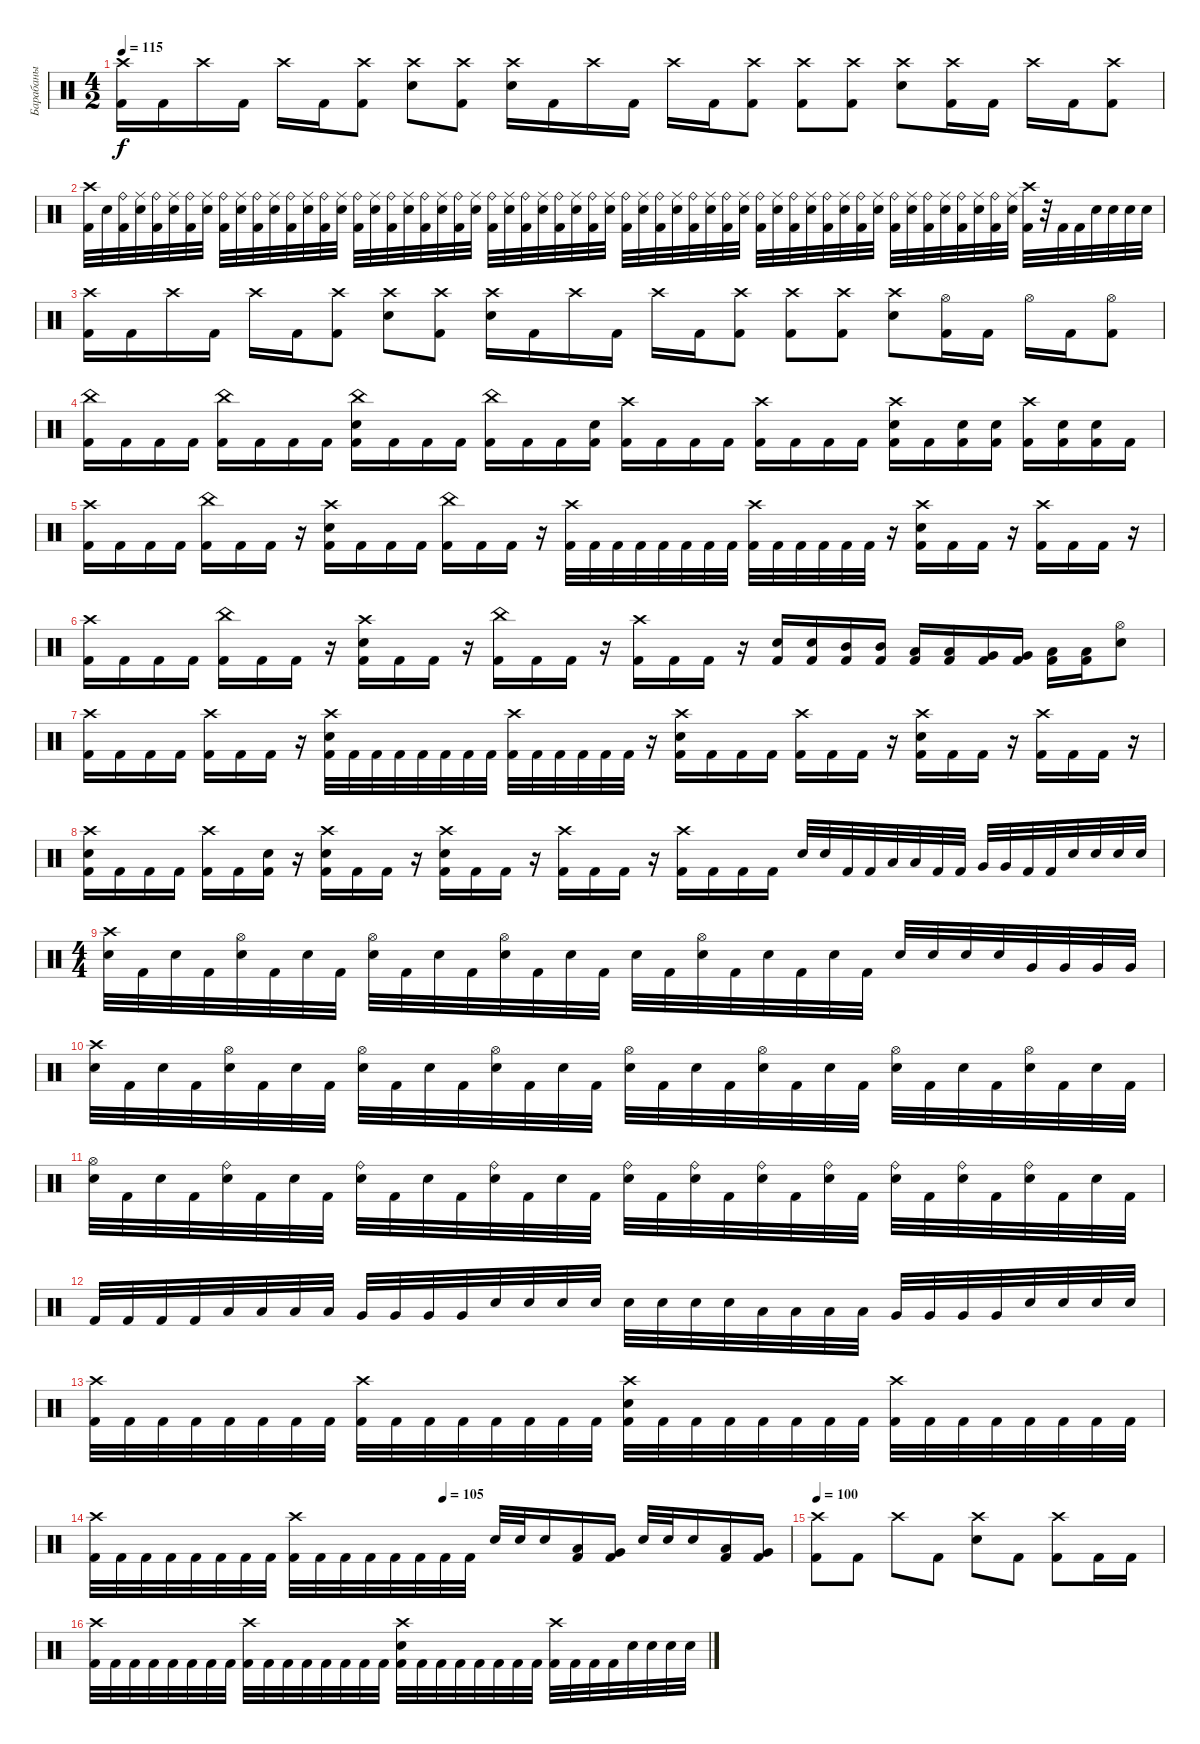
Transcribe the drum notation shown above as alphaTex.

\track ("Барабаны" "Барабаны") {instrument percussion}
\staff {score}
\articulation defaults
\ts (4 2)
\tempo 115
\clef neutral
\ks c
("Crash high (hit)" "Kick (hit) 2").16{dy f} "Kick (hit) 2".16 "Crash high (hit)".16 "Kick (hit) 2".16 "Crash high (hit)".16 "Kick (hit) 2".16 ("Crash high (hit)" "Kick (hit) 2").8 ("Crash high (hit)" "Electric Snare (hit)").8 ("Crash high (hit)" "Kick (hit) 2").8 ("Crash high (hit)" "Electric Snare (hit)").16 "Kick (hit) 2".16 "Crash high (hit)".16 "Kick (hit) 2".16 "Crash high (hit)".16 "Kick (hit) 2".16 ("Crash high (hit)" "Kick (hit) 2").8 ("Crash high (hit)" "Kick (hit) 2").8 ("Crash high (hit)" "Kick (hit) 2").8 ("Crash high (hit)" "Electric Snare (hit)").8 ("Crash high (hit)" "Kick (hit) 2").16 "Kick (hit) 2".16 "Crash high (hit)".16 "Kick (hit) 2".16 ("Crash high (hit)" "Kick (hit) 2").8 |
("Crash high (hit)" "Kick (hit) 2").32 "Electric Snare (hit)".32 ("Ride (bell)" "Kick (hit) 2").32 ("Ride (middle)" "Electric Snare (hit)").32 ("Ride (bell)" "Kick (hit) 2").32 ("Ride (middle)" "Electric Snare (hit)").32 ("Ride (bell)" "Kick (hit) 2").32 ("Ride (middle)" "Electric Snare (hit)").32 ("Ride (bell)" "Kick (hit) 2").32 ("Ride (middle)" "Electric Snare (hit)").32 ("Ride (bell)" "Kick (hit) 2").32 ("Ride (middle)" "Electric Snare (hit)").32 ("Ride (bell)" "Kick (hit) 2").32 ("Ride (middle)" "Electric Snare (hit)").32 ("Ride (bell)" "Kick (hit) 2").32 ("Ride (middle)" "Electric Snare (hit)").32 ("Ride (bell)" "Kick (hit) 2").32 ("Ride (middle)" "Electric Snare (hit)").32 ("Ride (bell)" "Kick (hit) 2").32 ("Ride (middle)" "Electric Snare (hit)").32 ("Ride (bell)" "Kick (hit) 2").32 ("Ride (middle)" "Electric Snare (hit)").32 ("Ride (bell)" "Kick (hit) 2").32 ("Ride (middle)" "Electric Snare (hit)").32 ("Ride (bell)" "Kick (hit) 2").32 ("Ride (middle)" "Electric Snare (hit)").32 ("Ride (bell)" "Kick (hit) 2").32 ("Ride (middle)" "Electric Snare (hit)").32 ("Ride (bell)" "Kick (hit) 2").32 ("Ride (middle)" "Electric Snare (hit)").32 ("Ride (bell)" "Kick (hit) 2").32 ("Ride (middle)" "Electric Snare (hit)").32 ("Ride (bell)" "Kick (hit) 2").32 ("Ride (middle)" "Electric Snare (hit)").32 ("Ride (bell)" "Kick (hit) 2").32 ("Ride (middle)" "Electric Snare (hit)").32 ("Ride (bell)" "Kick (hit) 2").32 ("Ride (middle)" "Electric Snare (hit)").32 ("Ride (bell)" "Kick (hit) 2").32 ("Ride (middle)" "Electric Snare (hit)").32 ("Ride (bell)" "Kick (hit) 2").32 ("Ride (middle)" "Electric Snare (hit)").32 ("Ride (bell)" "Kick (hit) 2").32 ("Ride (middle)" "Electric Snare (hit)").32 ("Ride (bell)" "Kick (hit) 2").32 ("Ride (middle)" "Electric Snare (hit)").32 ("Ride (bell)" "Kick (hit) 2").32 ("Ride (middle)" "Electric Snare (hit)").32 ("Ride (bell)" "Kick (hit) 2").32 ("Ride (middle)" "Electric Snare (hit)").32 ("Ride (bell)" "Kick (hit) 2").32 ("Ride (middle)" "Electric Snare (hit)").32 ("Ride (bell)" "Kick (hit) 2").32 ("Ride (middle)" "Electric Snare (hit)").32 ("Ride (bell)" "Kick (hit) 2").32 ("Ride (middle)" "Electric Snare (hit)").32 ("Crash high (hit)" "Kick (hit) 2").32 r.32 "Kick (hit) 2".32 "Kick (hit) 2".32 "Electric Snare (hit)".32 "Electric Snare (hit)".32 "Electric Snare (hit)".32 "Electric Snare (hit)".32 |
("Crash high (hit)" "Kick (hit) 2").16 "Kick (hit) 2".16 "Crash high (hit)".16 "Kick (hit) 2".16 "Crash high (hit)".16 "Kick (hit) 2".16 ("Crash high (hit)" "Kick (hit) 2").8 ("Crash high (hit)" "Electric Snare (hit)").8 ("Crash high (hit)" "Kick (hit) 2").8 ("Crash high (hit)" "Electric Snare (hit)").16 "Kick (hit) 2".16 "Crash high (hit)".16 "Kick (hit) 2".16 "Crash high (hit)".16 "Kick (hit) 2".16 ("Crash high (hit)" "Kick (hit) 2").8 ("Crash high (hit)" "Kick (hit) 2").8 ("Crash high (hit)" "Kick (hit) 2").8 ("Crash high (hit)" "Electric Snare (hit)").8 ("Hi-Hat (open)" "Kick (hit) 2").16 "Kick (hit) 2".16 "Hi-Hat (open)".16 "Kick (hit) 2".16 ("Hi-Hat (open)" "Kick (hit) 2").8 |
("China (hit)" "Kick (hit) 2").16 "Kick (hit) 2".16 "Kick (hit) 2".16 "Kick (hit) 2".16 ("China (hit)" "Kick (hit) 2").16 "Kick (hit) 2".16 "Kick (hit) 2".16 "Kick (hit) 2".16 ("China (hit)" "Electric Snare (hit)" "Kick (hit) 2").16 "Kick (hit) 2".16 "Kick (hit) 2".16 "Kick (hit) 2".16 ("China (hit)" "Kick (hit) 2").16 "Kick (hit) 2".16 "Kick (hit) 2".16 ("Electric Snare (hit)" "Kick (hit) 2").16 ("Crash high (hit)" "Kick (hit) 2").16 "Kick (hit) 2".16 "Kick (hit) 2".16 "Kick (hit) 2".16 ("Crash high (hit)" "Kick (hit) 2").16 "Kick (hit) 2".16 "Kick (hit) 2".16 "Kick (hit) 2".16 ("Crash high (hit)" "Electric Snare (hit)" "Kick (hit) 2").16 "Kick (hit) 2".16 ("Electric Snare (hit)" "Kick (hit) 2").16 ("Electric Snare (hit)" "Kick (hit) 2").16 ("Crash high (hit)" "Kick (hit) 2").16 ("Electric Snare (hit)" "Kick (hit) 2").16 ("Electric Snare (hit)" "Kick (hit) 2").16 "Kick (hit) 2".16 |
("Crash high (hit)" "Kick (hit) 2").16 "Kick (hit) 2".16 "Kick (hit) 2".16 "Kick (hit) 2".16 ("China (hit)" "Kick (hit) 2").16 "Kick (hit) 2".16 "Kick (hit) 2".16 r.16 ("Crash high (hit)" "Electric Snare (hit)" "Kick (hit) 2").16 "Kick (hit) 2".16 "Kick (hit) 2".16 "Kick (hit) 2".16 ("China (hit)" "Kick (hit) 2").16 "Kick (hit) 2".16 "Kick (hit) 2".16 r.16 ("Crash high (hit)" "Kick (hit) 2").32 "Kick (hit) 2".32 "Kick (hit) 2".32 "Kick (hit) 2".32 "Kick (hit) 2".32 "Kick (hit) 2".32 "Kick (hit) 2".32 "Kick (hit) 2".32 ("Crash high (hit)" "Kick (hit) 2").32 "Kick (hit) 2".32 "Kick (hit) 2".32 "Kick (hit) 2".32 "Kick (hit) 2".32 "Kick (hit) 2".32 r.16 ("Crash high (hit)" "Electric Snare (hit)" "Kick (hit) 2").16 "Kick (hit) 2".16 "Kick (hit) 2".16 r.16 ("Crash high (hit)" "Kick (hit) 2").16 "Kick (hit) 2".16 "Kick (hit) 2".16 r.16 |
("Crash high (hit)" "Kick (hit) 2").16 "Kick (hit) 2".16 "Kick (hit) 2".16 "Kick (hit) 2".16 ("China (hit)" "Kick (hit) 2").16 "Kick (hit) 2".16 "Kick (hit) 2".16 r.16 ("Crash high (hit)" "Electric Snare (hit)" "Kick (hit) 2").16 "Kick (hit) 2".16 "Kick (hit) 2".16 r.16 ("China (hit)" "Kick (hit) 2").16 "Kick (hit) 2".16 "Kick (hit) 2".16 r.16 ("Crash high (hit)" "Kick (hit) 2").16 "Kick (hit) 2".16 "Kick (hit) 2".16 r.16 ("Electric Snare (hit)" "Kick (hit) 2").16 ("Electric Snare (hit)" "Kick (hit) 2").16 ("Mid Tom (hit)" "Kick (hit) 2").16 ("Mid Tom (hit)" "Kick (hit) 2").16 ("Low Tom (hit)" "Kick (hit) 2").16 ("Low Tom (hit)" "Kick (hit) 2").16 ("Very Low Tom (hit)" "Kick (hit) 2").16 ("Very Low Tom (hit)" "Kick (hit) 2").16 ("Low Floor Tom (hit)" "Kick (hit) 2").16 ("Low Floor Tom (hit)" "Kick (hit) 2").16 ("Hi-Hat (open)" "Electric Snare (hit)").8 |
("Crash high (hit)" "Kick (hit) 2").16 "Kick (hit) 2".16 "Kick (hit) 2".16 "Kick (hit) 2".16 ("Crash high (hit)" "Kick (hit) 2").16 "Kick (hit) 2".16 "Kick (hit) 2".16 r.16 ("Crash high (hit)" "Electric Snare (hit)" "Kick (hit) 2").32 "Kick (hit) 2".32 "Kick (hit) 2".32 "Kick (hit) 2".32 "Kick (hit) 2".32 "Kick (hit) 2".32 "Kick (hit) 2".32 "Kick (hit) 2".32 ("Crash high (hit)" "Kick (hit) 2").32 "Kick (hit) 2".32 "Kick (hit) 2".32 "Kick (hit) 2".32 "Kick (hit) 2".32 "Kick (hit) 2".32 r.16 ("Crash high (hit)" "Electric Snare (hit)" "Kick (hit) 2").16 "Kick (hit) 2".16 "Kick (hit) 2".16 "Kick (hit) 2".16 ("Crash high (hit)" "Kick (hit) 2").16 "Kick (hit) 2".16 "Kick (hit) 2".16 r.16 ("Crash high (hit)" "Electric Snare (hit)" "Kick (hit) 2").16 "Kick (hit) 2".16 "Kick (hit) 2".16 r.16 ("Crash high (hit)" "Kick (hit) 2").16 "Kick (hit) 2".16 "Kick (hit) 2".16 r.16 |
("Crash high (hit)" "Electric Snare (hit)" "Kick (hit) 2").16 "Kick (hit) 2".16 "Kick (hit) 2".16 "Kick (hit) 2".16 ("Crash high (hit)" "Kick (hit) 2").16 "Kick (hit) 2".16 ("Electric Snare (hit)" "Kick (hit) 2").16 r.16 ("Crash high (hit)" "Electric Snare (hit)" "Kick (hit) 2").16 "Kick (hit) 2".16 "Kick (hit) 2".16 r.16 ("Crash high (hit)" "Electric Snare (hit)" "Kick (hit) 2").16 "Kick (hit) 2".16 "Kick (hit) 2".16 r.16 ("Crash high (hit)" "Kick (hit) 2").16 "Kick (hit) 2".16 "Kick (hit) 2".16 r.16 ("Crash high (hit)" "Kick (hit) 2").16 "Kick (hit) 2".16 "Kick (hit) 2".16 "Kick (hit) 2".16 "Electric Snare (hit)".32 "Electric Snare (hit)".32 "Kick (hit) 2".32 "Kick (hit) 2".32 "Low Tom (hit)".32 "Low Tom (hit)".32 "Kick (hit) 2".32 "Kick (hit) 2".32 "Very Low Tom (hit)".32 "Very Low Tom (hit)".32 "Kick (hit) 2".32 "Kick (hit) 2".32 "Electric Snare (hit)".32 "Electric Snare (hit)".32 "Electric Snare (hit)".32 "Electric Snare (hit)".32 |
\ts (4 4)
("Crash high (hit)" "Electric Snare (hit)").32 "Kick (hit) 2".32 "Electric Snare (hit)".32 "Kick (hit) 2".32 ("Hi-Hat (open)" "Electric Snare (hit)").32 "Kick (hit) 2".32 "Electric Snare (hit)".32 "Kick (hit) 2".32 ("Hi-Hat (open)" "Electric Snare (hit)").32 "Kick (hit) 2".32 "Electric Snare (hit)".32 "Kick (hit) 2".32 ("Hi-Hat (open)" "Electric Snare (hit)").32 "Kick (hit) 2".32 "Electric Snare (hit)".32 "Kick (hit) 2".32 "Electric Snare (hit)".32 "Kick (hit) 2".32 ("Hi-Hat (open)" "Electric Snare (hit)").32 "Kick (hit) 2".32 "Electric Snare (hit)".32 "Kick (hit) 2".32 "Electric Snare (hit)".32 "Kick (hit) 2".32 "Electric Snare (hit)".32 "Electric Snare (hit)".32 "Electric Snare (hit)".32 "Electric Snare (hit)".32 "Very Low Tom (hit)".32 "Very Low Tom (hit)".32 "Very Low Tom (hit)".32 "Very Low Tom (hit)".32 |
("Crash high (hit)" "Electric Snare (hit)").32 "Kick (hit) 2".32 "Electric Snare (hit)".32 "Kick (hit) 2".32 ("Hi-Hat (open)" "Electric Snare (hit)").32 "Kick (hit) 2".32 "Electric Snare (hit)".32 "Kick (hit) 2".32 ("Hi-Hat (open)" "Electric Snare (hit)").32 "Kick (hit) 2".32 "Electric Snare (hit)".32 "Kick (hit) 2".32 ("Hi-Hat (open)" "Electric Snare (hit)").32 "Kick (hit) 2".32 "Electric Snare (hit)".32 "Kick (hit) 2".32 ("Hi-Hat (open)" "Electric Snare (hit)").32 "Kick (hit) 2".32 "Electric Snare (hit)".32 "Kick (hit) 2".32 ("Hi-Hat (open)" "Electric Snare (hit)").32 "Kick (hit) 2".32 "Electric Snare (hit)".32 "Kick (hit) 2".32 ("Hi-Hat (open)" "Electric Snare (hit)").32 "Kick (hit) 2".32 "Electric Snare (hit)".32 "Kick (hit) 2".32 ("Hi-Hat (open)" "Electric Snare (hit)").32 "Kick (hit) 2".32 "Electric Snare (hit)".32 "Kick (hit) 2".32 |
("Hi-Hat (open)" "Electric Snare (hit)").32 "Kick (hit) 2".32 "Electric Snare (hit)".32 "Kick (hit) 2".32 ("Ride (bell)" "Electric Snare (hit)").32 "Kick (hit) 2".32 "Electric Snare (hit)".32 "Kick (hit) 2".32 ("Ride (bell)" "Electric Snare (hit)").32 "Kick (hit) 2".32 "Electric Snare (hit)".32 "Kick (hit) 2".32 ("Ride (bell)" "Electric Snare (hit)").32 "Kick (hit) 2".32 "Electric Snare (hit)".32 "Kick (hit) 2".32 ("Ride (bell)" "Electric Snare (hit)").32 "Kick (hit) 2".32 ("Ride (bell)" "Electric Snare (hit)").32 "Kick (hit) 2".32 ("Ride (bell)" "Electric Snare (hit)").32 "Kick (hit) 2".32 ("Ride (bell)" "Electric Snare (hit)").32 "Kick (hit) 2".32 ("Ride (bell)" "Electric Snare (hit)").32 "Kick (hit) 2".32 ("Ride (bell)" "Electric Snare (hit)").32 "Kick (hit) 2".32 ("Ride (bell)" "Electric Snare (hit)").32 "Kick (hit) 2".32 "Electric Snare (hit)".32 "Kick (hit) 2".32 |
"Kick (hit) 2".32 "Kick (hit) 2".32 "Kick (hit) 2".32 "Kick (hit) 2".32 "Low Tom (hit)".32 "Low Tom (hit)".32 "Low Tom (hit)".32 "Low Tom (hit)".32 "Very Low Tom (hit)".32 "Very Low Tom (hit)".32 "Very Low Tom (hit)".32 "Very Low Tom (hit)".32 "Electric Snare (hit)".32 "Electric Snare (hit)".32 "Electric Snare (hit)".32 "Electric Snare (hit)".32 "Electric Snare (hit)".32 "Electric Snare (hit)".32 "Electric Snare (hit)".32 "Electric Snare (hit)".32 "Low Tom (hit)".32 "Low Tom (hit)".32 "Low Tom (hit)".32 "Low Tom (hit)".32 "Very Low Tom (hit)".32 "Very Low Tom (hit)".32 "Very Low Tom (hit)".32 "Very Low Tom (hit)".32 "Electric Snare (hit)".32 "Electric Snare (hit)".32 "Electric Snare (hit)".32 "Electric Snare (hit)".32 |
("Crash high (hit)" "Kick (hit) 2").32 "Kick (hit) 2".32 "Kick (hit) 2".32 "Kick (hit) 2".32 "Kick (hit) 2".32 "Kick (hit) 2".32 "Kick (hit) 2".32 "Kick (hit) 2".32 ("Crash high (hit)" "Kick (hit) 2").32 "Kick (hit) 2".32 "Kick (hit) 2".32 "Kick (hit) 2".32 "Kick (hit) 2".32 "Kick (hit) 2".32 "Kick (hit) 2".32 "Kick (hit) 2".32 ("Crash high (hit)" "Electric Snare (hit)" "Kick (hit) 2").32 "Kick (hit) 2".32 "Kick (hit) 2".32 "Kick (hit) 2".32 "Kick (hit) 2".32 "Kick (hit) 2".32 "Kick (hit) 2".32 "Kick (hit) 2".32 ("Crash high (hit)" "Kick (hit) 2").32 "Kick (hit) 2".32 "Kick (hit) 2".32 "Kick (hit) 2".32 "Kick (hit) 2".32 "Kick (hit) 2".32 "Kick (hit) 2".32 "Kick (hit) 2".32 |
\tempo (105 0.5)
("Crash high (hit)" "Kick (hit) 2").32 "Kick (hit) 2".32 "Kick (hit) 2".32 "Kick (hit) 2".32 "Kick (hit) 2".32 "Kick (hit) 2".32 "Kick (hit) 2".32 "Kick (hit) 2".32 ("Crash high (hit)" "Kick (hit) 2").32 "Kick (hit) 2".32 "Kick (hit) 2".32 "Kick (hit) 2".32 "Kick (hit) 2".32 "Kick (hit) 2".32 "Kick (hit) 2".32 "Kick (hit) 2".32 "Electric Snare (hit)".32 "Electric Snare (hit)".32 "Electric Snare (hit)".16 ("Low Tom (hit)" "Kick (hit) 2").16 ("Very Low Tom (hit)" "Kick (hit) 2").16 "Electric Snare (hit)".32 "Electric Snare (hit)".32 "Electric Snare (hit)".16 ("Low Tom (hit)" "Kick (hit) 2").16 ("Very Low Tom (hit)" "Kick (hit) 2").16 |
\tempo 100
("Crash high (hit)" "Kick (hit) 2").8 "Kick (hit) 2".8 "Crash high (hit)".8 "Kick (hit) 2".8 ("Crash high (hit)" "Electric Snare (hit)").8 "Kick (hit) 2".8 ("Crash high (hit)" "Kick (hit) 2").8 "Kick (hit) 2".16 "Kick (hit) 2".16 |
("Crash high (hit)" "Kick (hit) 2").32 "Kick (hit) 2".32 "Kick (hit) 2".32 "Kick (hit) 2".32 "Kick (hit) 2".32 "Kick (hit) 2".32 "Kick (hit) 2".32 "Kick (hit) 2".32 ("Crash high (hit)" "Kick (hit) 2").32 "Kick (hit) 2".32 "Kick (hit) 2".32 "Kick (hit) 2".32 "Kick (hit) 2".32 "Kick (hit) 2".32 "Kick (hit) 2".32 "Kick (hit) 2".32 ("Crash high (hit)" "Electric Snare (hit)" "Kick (hit) 2").32 "Kick (hit) 2".32 "Kick (hit) 2".32 "Kick (hit) 2".32 "Kick (hit) 2".32 "Kick (hit) 2".32 "Kick (hit) 2".32 "Kick (hit) 2".32 ("Crash high (hit)" "Kick (hit) 2").32 "Kick (hit) 2".32 "Kick (hit) 2".32 "Kick (hit) 2".32 "Electric Snare (hit)".32 "Electric Snare (hit)".32 "Electric Snare (hit)".32 "Electric Snare (hit)".32
